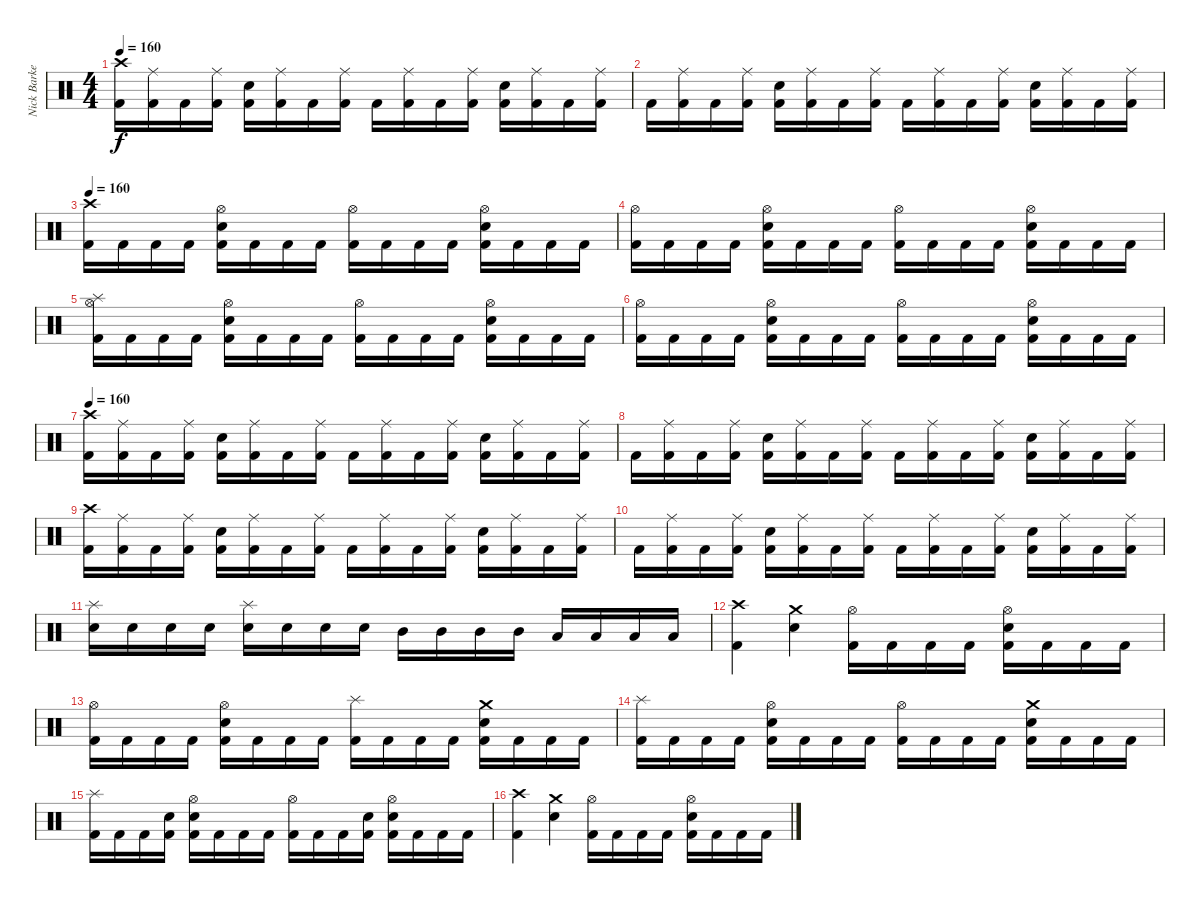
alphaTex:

\track ("Nick Barker" "Nick Barke") {instrument percussion}
\staff {score}
\articulation defaults
\ts (4 4)
\tempo 160
\clef neutral
\ks c
("Crash high (hit)" "Kick (hit) 2").16{dy f} ("Ride (middle)" "Kick (hit) 2").16 "Kick (hit) 2".16 ("Ride (middle)" "Kick (hit) 2").16 ("Electric Snare (hit)" "Kick (hit) 2").16 ("Ride (middle)" "Kick (hit) 2").16 "Kick (hit) 2".16 ("Ride (middle)" "Kick (hit) 2").16 "Kick (hit) 2".16 ("Ride (middle)" "Kick (hit) 2").16 "Kick (hit) 2".16 ("Ride (middle)" "Kick (hit) 2").16 ("Electric Snare (hit)" "Kick (hit) 2").16 ("Ride (middle)" "Kick (hit) 2").16 "Kick (hit) 2".16 ("Ride (middle)" "Kick (hit) 2").16 |
"Kick (hit) 2".16 ("Ride (middle)" "Kick (hit) 2").16 "Kick (hit) 2".16 ("Ride (middle)" "Kick (hit) 2").16 ("Electric Snare (hit)" "Kick (hit) 2").16 ("Ride (middle)" "Kick (hit) 2").16 "Kick (hit) 2".16 ("Ride (middle)" "Kick (hit) 2").16 "Kick (hit) 2".16 ("Ride (middle)" "Kick (hit) 2").16 "Kick (hit) 2".16 ("Ride (middle)" "Kick (hit) 2").16 ("Electric Snare (hit)" "Kick (hit) 2").16 ("Ride (middle)" "Kick (hit) 2").16 "Kick (hit) 2".16 ("Ride (middle)" "Kick (hit) 2").16 |
\tempo 160
("Crash high (hit)" "Kick (hit) 2").16 "Kick (hit) 2".16 "Kick (hit) 2".16 "Kick (hit) 2".16 ("Hi-Hat (open)" "Electric Snare (hit)" "Kick (hit) 2").16 "Kick (hit) 2".16 "Kick (hit) 2".16 "Kick (hit) 2".16 ("Hi-Hat (open)" "Kick (hit) 2").16 "Kick (hit) 2".16 "Kick (hit) 2".16 "Kick (hit) 2".16 ("Hi-Hat (open)" "Electric Snare (hit)" "Kick (hit) 2").16 "Kick (hit) 2".16 "Kick (hit) 2".16 "Kick (hit) 2".16 |
("Hi-Hat (open)" "Kick (hit) 2").16 "Kick (hit) 2".16 "Kick (hit) 2".16 "Kick (hit) 2".16 ("Hi-Hat (open)" "Electric Snare (hit)" "Kick (hit) 2").16 "Kick (hit) 2".16 "Kick (hit) 2".16 "Kick (hit) 2".16 ("Hi-Hat (open)" "Kick (hit) 2").16 "Kick (hit) 2".16 "Kick (hit) 2".16 "Kick (hit) 2".16 ("Hi-Hat (open)" "Electric Snare (hit)" "Kick (hit) 2").16 "Kick (hit) 2".16 "Kick (hit) 2".16 "Kick (hit) 2".16 |
("Splash (hit)" "Hi-Hat (open)" "Kick (hit) 2").16 "Kick (hit) 2".16 "Kick (hit) 2".16 "Kick (hit) 2".16 ("Hi-Hat (open)" "Electric Snare (hit)" "Kick (hit) 2").16 "Kick (hit) 2".16 "Kick (hit) 2".16 "Kick (hit) 2".16 ("Hi-Hat (open)" "Kick (hit) 2").16 "Kick (hit) 2".16 "Kick (hit) 2".16 "Kick (hit) 2".16 ("Hi-Hat (open)" "Electric Snare (hit)" "Kick (hit) 2").16 "Kick (hit) 2".16 "Kick (hit) 2".16 "Kick (hit) 2".16 |
("Hi-Hat (open)" "Kick (hit) 2").16 "Kick (hit) 2".16 "Kick (hit) 2".16 "Kick (hit) 2".16 ("Hi-Hat (open)" "Electric Snare (hit)" "Kick (hit) 2").16 "Kick (hit) 2".16 "Kick (hit) 2".16 "Kick (hit) 2".16 ("Hi-Hat (open)" "Kick (hit) 2").16 "Kick (hit) 2".16 "Kick (hit) 2".16 "Kick (hit) 2".16 ("Hi-Hat (open)" "Electric Snare (hit)" "Kick (hit) 2").16 "Kick (hit) 2".16 "Kick (hit) 2".16 "Kick (hit) 2".16 |
\tempo 160
("Crash high (hit)" "Kick (hit) 2").16 ("Ride (middle)" "Kick (hit) 2").16 "Kick (hit) 2".16 ("Ride (middle)" "Kick (hit) 2").16 ("Electric Snare (hit)" "Kick (hit) 2").16 ("Ride (middle)" "Kick (hit) 2").16 "Kick (hit) 2".16 ("Ride (middle)" "Kick (hit) 2").16 "Kick (hit) 2".16 ("Ride (middle)" "Kick (hit) 2").16 "Kick (hit) 2".16 ("Ride (middle)" "Kick (hit) 2").16 ("Electric Snare (hit)" "Kick (hit) 2").16 ("Ride (middle)" "Kick (hit) 2").16 "Kick (hit) 2".16 ("Ride (middle)" "Kick (hit) 2").16 |
"Kick (hit) 2".16 ("Ride (middle)" "Kick (hit) 2").16 "Kick (hit) 2".16 ("Ride (middle)" "Kick (hit) 2").16 ("Electric Snare (hit)" "Kick (hit) 2").16 ("Ride (middle)" "Kick (hit) 2").16 "Kick (hit) 2".16 ("Ride (middle)" "Kick (hit) 2").16 "Kick (hit) 2".16 ("Ride (middle)" "Kick (hit) 2").16 "Kick (hit) 2".16 ("Ride (middle)" "Kick (hit) 2").16 ("Electric Snare (hit)" "Kick (hit) 2").16 ("Ride (middle)" "Kick (hit) 2").16 "Kick (hit) 2".16 ("Ride (middle)" "Kick (hit) 2").16 |
("Crash high (hit)" "Kick (hit) 2").16 ("Ride (middle)" "Kick (hit) 2").16 "Kick (hit) 2".16 ("Ride (middle)" "Kick (hit) 2").16 ("Electric Snare (hit)" "Kick (hit) 2").16 ("Ride (middle)" "Kick (hit) 2").16 "Kick (hit) 2".16 ("Ride (middle)" "Kick (hit) 2").16 "Kick (hit) 2".16 ("Ride (middle)" "Kick (hit) 2").16 "Kick (hit) 2".16 ("Ride (middle)" "Kick (hit) 2").16 ("Electric Snare (hit)" "Kick (hit) 2").16 ("Ride (middle)" "Kick (hit) 2").16 "Kick (hit) 2".16 ("Ride (middle)" "Kick (hit) 2").16 |
"Kick (hit) 2".16 ("Ride (middle)" "Kick (hit) 2").16 "Kick (hit) 2".16 ("Ride (middle)" "Kick (hit) 2").16 ("Electric Snare (hit)" "Kick (hit) 2").16 ("Ride (middle)" "Kick (hit) 2").16 "Kick (hit) 2".16 ("Ride (middle)" "Kick (hit) 2").16 "Kick (hit) 2".16 ("Ride (middle)" "Kick (hit) 2").16 "Kick (hit) 2".16 ("Ride (middle)" "Kick (hit) 2").16 ("Electric Snare (hit)" "Kick (hit) 2").16 ("Ride (middle)" "Kick (hit) 2").16 "Kick (hit) 2".16 ("Ride (middle)" "Kick (hit) 2").16 |
("Splash (hit)" "Electric Snare (hit)").16 "Electric Snare (hit)".16 "Electric Snare (hit)".16 "Electric Snare (hit)".16 ("Splash (hit)" "Electric Snare (hit)").16 "Electric Snare (hit)".16 "Electric Snare (hit)".16 "Electric Snare (hit)".16 "Mid Tom (hit)".16 "Mid Tom (hit)".16 "Mid Tom (hit)".16 "Mid Tom (hit)".16 "Low Tom (hit)".16 "Low Tom (hit)".16 "Low Tom (hit)".16 "Low Tom (hit)".16 |
\section ("" "")
("Crash high (hit)" "Kick (hit) 2").4 ("Crash medium (hit)" "Electric Snare (hit)").4 ("Hi-Hat (open)" "Kick (hit) 2").16 "Kick (hit) 2".16 "Kick (hit) 2".16 "Kick (hit) 2".16 ("Hi-Hat (open)" "Electric Snare (hit)" "Kick (hit) 2").16 "Kick (hit) 2".16 "Kick (hit) 2".16 "Kick (hit) 2".16 |
("Hi-Hat (open)" "Kick (hit) 2").16 "Kick (hit) 2".16 "Kick (hit) 2".16 "Kick (hit) 2".16 ("Hi-Hat (open)" "Electric Snare (hit)" "Kick (hit) 2").16 "Kick (hit) 2".16 "Kick (hit) 2".16 "Kick (hit) 2".16 ("Splash (hit)" "Kick (hit) 2").16 "Kick (hit) 2".16 "Kick (hit) 2".16 "Kick (hit) 2".16 ("Crash medium (hit)" "Electric Snare (hit)" "Kick (hit) 2").16 "Kick (hit) 2".16 "Kick (hit) 2".16 "Kick (hit) 2".16 |
("Splash (hit)" "Kick (hit) 2").16 "Kick (hit) 2".16 "Kick (hit) 2".16 "Kick (hit) 2".16 ("Hi-Hat (open)" "Electric Snare (hit)" "Kick (hit) 2").16 "Kick (hit) 2".16 "Kick (hit) 2".16 "Kick (hit) 2".16 ("Hi-Hat (open)" "Kick (hit) 2").16 "Kick (hit) 2".16 "Kick (hit) 2".16 "Kick (hit) 2".16 ("Crash medium (hit)" "Electric Snare (hit)" "Kick (hit) 2").16 "Kick (hit) 2".16 "Kick (hit) 2".16 "Kick (hit) 2".16 |
("Splash (hit)" "Kick (hit) 2").16 "Kick (hit) 2".16 "Kick (hit) 2".16 ("Electric Snare (hit)" "Kick (hit) 2").16 ("Hi-Hat (open)" "Electric Snare (hit)" "Kick (hit) 2").16 "Kick (hit) 2".16 "Kick (hit) 2".16 "Kick (hit) 2".16 ("Hi-Hat (open)" "Kick (hit) 2").16 "Kick (hit) 2".16 "Kick (hit) 2".16 ("Electric Snare (hit)" "Kick (hit) 2").16 ("Hi-Hat (open)" "Electric Snare (hit)" "Kick (hit) 2").16 "Kick (hit) 2".16 "Kick (hit) 2".16 "Kick (hit) 2".16 |
("Crash high (hit)" "Kick (hit) 2").4 ("Crash medium (hit)" "Electric Snare (hit)").4 ("Hi-Hat (open)" "Kick (hit) 2").16 "Kick (hit) 2".16 "Kick (hit) 2".16 "Kick (hit) 2".16 ("Hi-Hat (open)" "Electric Snare (hit)" "Kick (hit) 2").16 "Kick (hit) 2".16 "Kick (hit) 2".16 "Kick (hit) 2".16
